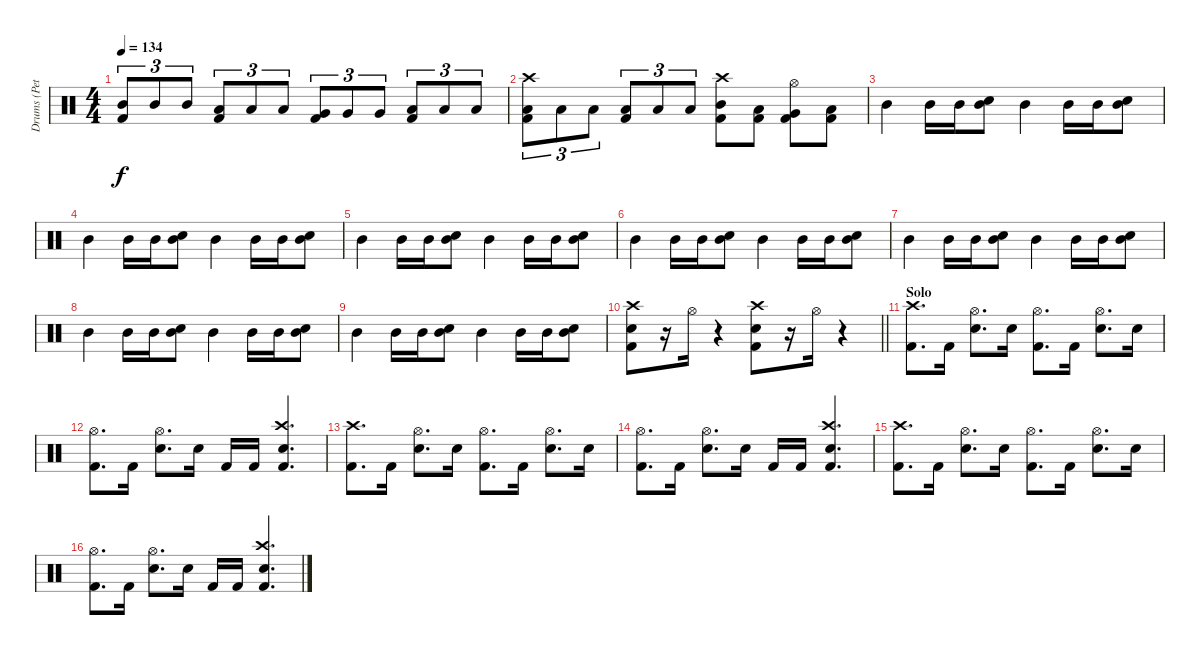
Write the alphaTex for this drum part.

\track ("Drums (Peter Criss)" "Drums (Pet") {instrument percussion}
\staff {score}
\articulation defaults
\ts (4 4)
\tempo 134
\clef neutral
\ks c
("Mid Tom (hit)" "Kick (hit) 2").8{tu (3 2) dy f} "Mid Tom (hit)".8{tu (3 2)} "Mid Tom (hit)".8{tu (3 2)} ("Low Tom (hit)" "Kick (hit) 2").8{tu (3 2)} "Low Tom (hit)".8{tu (3 2)} "Low Tom (hit)".8{tu (3 2)} ("Very Low Tom (hit)" "Kick (hit) 2").8{tu (3 2)} "Very Low Tom (hit)".8{tu (3 2)} "Very Low Tom (hit)".8{tu (3 2)} ("Low Floor Tom (hit)" "Kick (hit) 2").8{tu (3 2)} "Low Floor Tom (hit)".8{tu (3 2)} "Low Floor Tom (hit)".8{tu (3 2)} |
("Low Floor Tom (hit)" "Crash high (hit)" "Kick (hit) 2").8{tu (3 2)} "Low Floor Tom (hit)".8{tu (3 2)} "Low Floor Tom (hit)".8{tu (3 2)} ("Low Floor Tom (hit)" "Kick (hit) 2").8{tu (3 2)} "Low Floor Tom (hit)".8{tu (3 2)} "Low Floor Tom (hit)".8{tu (3 2)} ("Mid Tom (hit)" "Crash high (hit)" "Kick (hit) 2").8 ("Low Tom (hit)" "Kick (hit) 2").8 ("Very Low Tom (hit)" "Hi-Hat (open)" "Kick (hit) 2").8 ("Low Floor Tom (hit)" "Kick (hit) 2").8 |
"Mid Tom (hit)".4 "Mid Tom (hit)".16 "Mid Tom (hit)".16 ("Mid Tom (hit)" "Snare (hit) 2").8 "Mid Tom (hit)".4 "Mid Tom (hit)".16 "Mid Tom (hit)".16 ("Mid Tom (hit)" "Snare (hit) 2").8 |
"Mid Tom (hit)".4 "Mid Tom (hit)".16 "Mid Tom (hit)".16 ("Mid Tom (hit)" "Snare (hit) 2").8 "Mid Tom (hit)".4 "Mid Tom (hit)".16 "Mid Tom (hit)".16 ("Mid Tom (hit)" "Snare (hit) 2").8 |
"Mid Tom (hit)".4 "Mid Tom (hit)".16 "Mid Tom (hit)".16 ("Mid Tom (hit)" "Snare (hit) 2").8 "Mid Tom (hit)".4 "Mid Tom (hit)".16 "Mid Tom (hit)".16 ("Mid Tom (hit)" "Snare (hit) 2").8 |
"Mid Tom (hit)".4 "Mid Tom (hit)".16 "Mid Tom (hit)".16 ("Mid Tom (hit)" "Snare (hit) 2").8 "Mid Tom (hit)".4 "Mid Tom (hit)".16 "Mid Tom (hit)".16 ("Mid Tom (hit)" "Snare (hit) 2").8 |
"Mid Tom (hit)".4 "Mid Tom (hit)".16 "Mid Tom (hit)".16 ("Mid Tom (hit)" "Snare (hit) 2").8 "Mid Tom (hit)".4 "Mid Tom (hit)".16 "Mid Tom (hit)".16 ("Mid Tom (hit)" "Snare (hit) 2").8 |
"Mid Tom (hit)".4 "Mid Tom (hit)".16 "Mid Tom (hit)".16 ("Mid Tom (hit)" "Snare (hit) 2").8 "Mid Tom (hit)".4 "Mid Tom (hit)".16 "Mid Tom (hit)".16 ("Mid Tom (hit)" "Snare (hit) 2").8 |
"Mid Tom (hit)".4 "Mid Tom (hit)".16 "Mid Tom (hit)".16 ("Mid Tom (hit)" "Snare (hit) 2").8 "Mid Tom (hit)".4 "Mid Tom (hit)".16 "Mid Tom (hit)".16 ("Mid Tom (hit)" "Snare (hit) 2").8 |
\barLineRight lightlight
("Snare (hit) 2" "Crash high (hit)" "Kick (hit) 2").8 r.16 "Hi-Hat (open)".16 r.4 ("Snare (hit) 2" "Crash high (hit)" "Kick (hit) 2").8 r.16 "Hi-Hat (open)".16 r.4 |
\section ("" "Solo")
("Crash high (hit)" "Kick (hit) 2").8{d} "Kick (hit) 2".16 ("Snare (hit) 2" "Hi-Hat (open)").8{d} "Snare (hit) 2".16 ("Hi-Hat (open)" "Kick (hit) 2").8{d} "Kick (hit) 2".16 ("Snare (hit) 2" "Hi-Hat (open)").8{d} "Snare (hit) 2".16 |
("Hi-Hat (open)" "Kick (hit) 2").8{d} "Kick (hit) 2".16 ("Snare (hit) 2" "Hi-Hat (open)").8{d} "Snare (hit) 2".16 "Kick (hit) 2".16 "Kick (hit) 2".16 ("Snare (hit) 2" "Crash high (hit)" "Kick (hit) 2").4{d} |
("Crash high (hit)" "Kick (hit) 2").8{d} "Kick (hit) 2".16 ("Snare (hit) 2" "Hi-Hat (open)").8{d} "Snare (hit) 2".16 ("Hi-Hat (open)" "Kick (hit) 2").8{d} "Kick (hit) 2".16 ("Snare (hit) 2" "Hi-Hat (open)").8{d} "Snare (hit) 2".16 |
("Hi-Hat (open)" "Kick (hit) 2").8{d} "Kick (hit) 2".16 ("Snare (hit) 2" "Hi-Hat (open)").8{d} "Snare (hit) 2".16 "Kick (hit) 2".16 "Kick (hit) 2".16 ("Snare (hit) 2" "Crash high (hit)" "Kick (hit) 2").4{d} |
("Crash high (hit)" "Kick (hit) 2").8{d} "Kick (hit) 2".16 ("Snare (hit) 2" "Hi-Hat (open)").8{d} "Snare (hit) 2".16 ("Hi-Hat (open)" "Kick (hit) 2").8{d} "Kick (hit) 2".16 ("Snare (hit) 2" "Hi-Hat (open)").8{d} "Snare (hit) 2".16 |
("Hi-Hat (open)" "Kick (hit) 2").8{d} "Kick (hit) 2".16 ("Snare (hit) 2" "Hi-Hat (open)").8{d} "Snare (hit) 2".16 "Kick (hit) 2".16 "Kick (hit) 2".16 ("Snare (hit) 2" "Crash high (hit)" "Kick (hit) 2").4{d}
